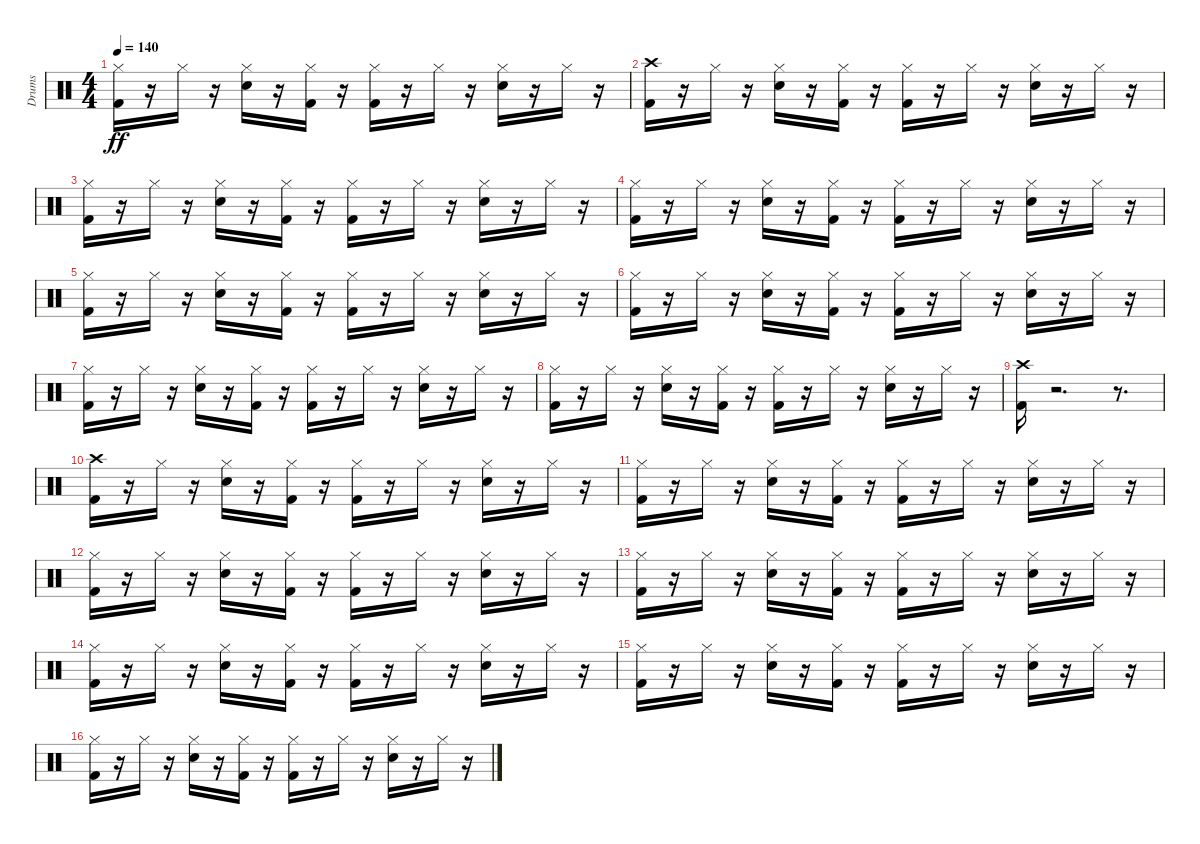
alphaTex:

\track ("Drums" "Drums") {instrument percussion}
\staff {score}
\articulation defaults
\ts (4 4)
\tempo 140
\clef neutral
\ks c
("Hi-Hat (closed)" "Kick (hit) 2").16{dy ff} r.16 "Hi-Hat (closed)".16 r.16 ("Hi-Hat (closed)" "Snare (hit) 2").16 r.16 ("Hi-Hat (closed)" "Kick (hit) 2").16 r.16 ("Hi-Hat (closed)" "Kick (hit) 2").16 r.16 "Hi-Hat (closed)".16 r.16 ("Hi-Hat (closed)" "Snare (hit) 2").16 r.16 "Hi-Hat (closed)".16 r.16 |
("Crash high (hit)" "Kick (hit) 2").16 r.16 "Hi-Hat (closed)".16 r.16 ("Hi-Hat (closed)" "Snare (hit) 2").16 r.16 ("Hi-Hat (closed)" "Kick (hit) 2").16 r.16 ("Hi-Hat (closed)" "Kick (hit) 2").16 r.16 "Hi-Hat (closed)".16 r.16 ("Hi-Hat (closed)" "Snare (hit) 2").16 r.16 "Hi-Hat (closed)".16 r.16 |
("Hi-Hat (closed)" "Kick (hit) 2").16 r.16 "Hi-Hat (closed)".16 r.16 ("Hi-Hat (closed)" "Snare (hit) 2").16 r.16 ("Hi-Hat (closed)" "Kick (hit) 2").16 r.16 ("Hi-Hat (closed)" "Kick (hit) 2").16 r.16 "Hi-Hat (closed)".16 r.16 ("Hi-Hat (closed)" "Snare (hit) 2").16 r.16 "Hi-Hat (closed)".16 r.16 |
("Hi-Hat (closed)" "Kick (hit) 2").16 r.16 "Hi-Hat (closed)".16 r.16 ("Hi-Hat (closed)" "Snare (hit) 2").16 r.16 ("Hi-Hat (closed)" "Kick (hit) 2").16 r.16 ("Hi-Hat (closed)" "Kick (hit) 2").16 r.16 "Hi-Hat (closed)".16 r.16 ("Hi-Hat (closed)" "Snare (hit) 2").16 r.16 "Hi-Hat (closed)".16 r.16 |
("Hi-Hat (closed)" "Kick (hit) 2").16 r.16 "Hi-Hat (closed)".16 r.16 ("Hi-Hat (closed)" "Snare (hit) 2").16 r.16 ("Hi-Hat (closed)" "Kick (hit) 2").16 r.16 ("Hi-Hat (closed)" "Kick (hit) 2").16 r.16 "Hi-Hat (closed)".16 r.16 ("Hi-Hat (closed)" "Snare (hit) 2").16 r.16 "Hi-Hat (closed)".16 r.16 |
("Hi-Hat (closed)" "Kick (hit) 2").16 r.16 "Hi-Hat (closed)".16 r.16 ("Hi-Hat (closed)" "Snare (hit) 2").16 r.16 ("Hi-Hat (closed)" "Kick (hit) 2").16 r.16 ("Hi-Hat (closed)" "Kick (hit) 2").16 r.16 "Hi-Hat (closed)".16 r.16 ("Hi-Hat (closed)" "Snare (hit) 2").16 r.16 "Hi-Hat (closed)".16 r.16 |
("Hi-Hat (closed)" "Kick (hit) 2").16 r.16 "Hi-Hat (closed)".16 r.16 ("Hi-Hat (closed)" "Snare (hit) 2").16 r.16 ("Hi-Hat (closed)" "Kick (hit) 2").16 r.16 ("Hi-Hat (closed)" "Kick (hit) 2").16 r.16 "Hi-Hat (closed)".16 r.16 ("Hi-Hat (closed)" "Snare (hit) 2").16 r.16 "Hi-Hat (closed)".16 r.16 |
("Hi-Hat (closed)" "Kick (hit) 2").16 r.16 "Hi-Hat (closed)".16 r.16 ("Hi-Hat (closed)" "Snare (hit) 2").16 r.16 ("Hi-Hat (closed)" "Kick (hit) 2").16 r.16 ("Hi-Hat (closed)" "Kick (hit) 2").16 r.16 "Hi-Hat (closed)".16 r.16 ("Hi-Hat (closed)" "Snare (hit) 2").16 r.16 "Hi-Hat (closed)".16 r.16 |
("Crash high (hit)" "Kick (hit) 2").16 r.2{d} r.8{d} |
("Crash high (hit)" "Kick (hit) 2").16 r.16 "Hi-Hat (closed)".16 r.16 ("Hi-Hat (closed)" "Snare (hit) 2").16 r.16 ("Hi-Hat (closed)" "Kick (hit) 2").16 r.16 ("Hi-Hat (closed)" "Kick (hit) 2").16 r.16 "Hi-Hat (closed)".16 r.16 ("Hi-Hat (closed)" "Snare (hit) 2").16 r.16 "Hi-Hat (closed)".16 r.16 |
("Hi-Hat (closed)" "Kick (hit) 2").16 r.16 "Hi-Hat (closed)".16 r.16 ("Hi-Hat (closed)" "Snare (hit) 2").16 r.16 ("Hi-Hat (closed)" "Kick (hit) 2").16 r.16 ("Hi-Hat (closed)" "Kick (hit) 2").16 r.16 "Hi-Hat (closed)".16 r.16 ("Hi-Hat (closed)" "Snare (hit) 2").16 r.16 "Hi-Hat (closed)".16 r.16 |
("Hi-Hat (closed)" "Kick (hit) 2").16 r.16 "Hi-Hat (closed)".16 r.16 ("Hi-Hat (closed)" "Snare (hit) 2").16 r.16 ("Hi-Hat (closed)" "Kick (hit) 2").16 r.16 ("Hi-Hat (closed)" "Kick (hit) 2").16 r.16 "Hi-Hat (closed)".16 r.16 ("Hi-Hat (closed)" "Snare (hit) 2").16 r.16 "Hi-Hat (closed)".16 r.16 |
("Hi-Hat (closed)" "Kick (hit) 2").16 r.16 "Hi-Hat (closed)".16 r.16 ("Hi-Hat (closed)" "Snare (hit) 2").16 r.16 ("Hi-Hat (closed)" "Kick (hit) 2").16 r.16 ("Hi-Hat (closed)" "Kick (hit) 2").16 r.16 "Hi-Hat (closed)".16 r.16 ("Hi-Hat (closed)" "Snare (hit) 2").16 r.16 "Hi-Hat (closed)".16 r.16 |
("Hi-Hat (closed)" "Kick (hit) 2").16 r.16 "Hi-Hat (closed)".16 r.16 ("Hi-Hat (closed)" "Snare (hit) 2").16 r.16 ("Hi-Hat (closed)" "Kick (hit) 2").16 r.16 ("Hi-Hat (closed)" "Kick (hit) 2").16 r.16 "Hi-Hat (closed)".16 r.16 ("Hi-Hat (closed)" "Snare (hit) 2").16 r.16 "Hi-Hat (closed)".16 r.16 |
("Hi-Hat (closed)" "Kick (hit) 2").16 r.16 "Hi-Hat (closed)".16 r.16 ("Hi-Hat (closed)" "Snare (hit) 2").16 r.16 ("Hi-Hat (closed)" "Kick (hit) 2").16 r.16 ("Hi-Hat (closed)" "Kick (hit) 2").16 r.16 "Hi-Hat (closed)".16 r.16 ("Hi-Hat (closed)" "Snare (hit) 2").16 r.16 "Hi-Hat (closed)".16 r.16 |
("Hi-Hat (closed)" "Kick (hit) 2").16 r.16 "Hi-Hat (closed)".16 r.16 ("Hi-Hat (closed)" "Snare (hit) 2").16 r.16 ("Hi-Hat (closed)" "Kick (hit) 2").16 r.16 ("Hi-Hat (closed)" "Kick (hit) 2").16 r.16 "Hi-Hat (closed)".16 r.16 ("Hi-Hat (closed)" "Snare (hit) 2").16 r.16 "Hi-Hat (closed)".16 r.16
